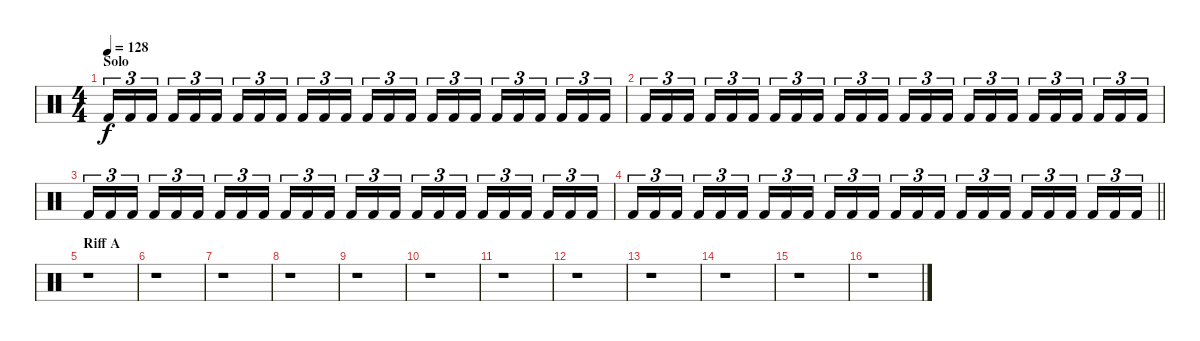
\track "" {instrument percussion}
\staff {score}
\articulation defaults
\ts (4 4)
\section ("" "Solo")
\tempo 128
\clef neutral
\ks c "Kick (hit) 2".16{tu (3 2) dy f} "Kick (hit) 2".16{tu (3 2)} "Kick (hit) 2".16{tu (3 2) beam splitsecondary} "Kick (hit) 2".16{tu (3 2)} "Kick (hit) 2".16{tu (3 2)} "Kick (hit) 2".16{tu (3 2)} "Kick (hit) 2".16{tu (3 2)} "Kick (hit) 2".16{tu (3 2)} "Kick (hit) 2".16{tu (3 2) beam splitsecondary} "Kick (hit) 2".16{tu (3 2)} "Kick (hit) 2".16{tu (3 2)} "Kick (hit) 2".16{tu (3 2)} "Kick (hit) 2".16{tu (3 2)} "Kick (hit) 2".16{tu (3 2)} "Kick (hit) 2".16{tu (3 2) beam splitsecondary} "Kick (hit) 2".16{tu (3 2)} "Kick (hit) 2".16{tu (3 2)} "Kick (hit) 2".16{tu (3 2)} "Kick (hit) 2".16{tu (3 2)} "Kick (hit) 2".16{tu (3 2)} "Kick (hit) 2".16{tu (3 2) beam splitsecondary} "Kick (hit) 2".16{tu (3 2)} "Kick (hit) 2".16{tu (3 2)} "Kick (hit) 2".16{tu (3 2)}
|
"Kick (hit) 2".16{tu (3 2)} "Kick (hit) 2".16{tu (3 2)} "Kick (hit) 2".16{tu (3 2) beam splitsecondary} "Kick (hit) 2".16{tu (3 2)} "Kick (hit) 2".16{tu (3 2)} "Kick (hit) 2".16{tu (3 2)} "Kick (hit) 2".16{tu (3 2)} "Kick (hit) 2".16{tu (3 2)} "Kick (hit) 2".16{tu (3 2) beam splitsecondary} "Kick (hit) 2".16{tu (3 2)} "Kick (hit) 2".16{tu (3 2)} "Kick (hit) 2".16{tu (3 2)} "Kick (hit) 2".16{tu (3 2)} "Kick (hit) 2".16{tu (3 2)} "Kick (hit) 2".16{tu (3 2) beam splitsecondary} "Kick (hit) 2".16{tu (3 2)} "Kick (hit) 2".16{tu (3 2)} "Kick (hit) 2".16{tu (3 2)} "Kick (hit) 2".16{tu (3 2)} "Kick (hit) 2".16{tu (3 2)} "Kick (hit) 2".16{tu (3 2) beam splitsecondary} "Kick (hit) 2".16{tu (3 2)} "Kick (hit) 2".16{tu (3 2)} "Kick (hit) 2".16{tu (3 2)} |
"Kick (hit) 2".16{tu (3 2)} "Kick (hit) 2".16{tu (3 2)} "Kick (hit) 2".16{tu (3 2) beam splitsecondary} "Kick (hit) 2".16{tu (3 2)} "Kick (hit) 2".16{tu (3 2)} "Kick (hit) 2".16{tu (3 2)} "Kick (hit) 2".16{tu (3 2)} "Kick (hit) 2".16{tu (3 2)} "Kick (hit) 2".16{tu (3 2) beam splitsecondary} "Kick (hit) 2".16{tu (3 2)} "Kick (hit) 2".16{tu (3 2)} "Kick (hit) 2".16{tu (3 2)} "Kick (hit) 2".16{tu (3 2)} "Kick (hit) 2".16{tu (3 2)} "Kick (hit) 2".16{tu (3 2) beam splitsecondary} "Kick (hit) 2".16{tu (3 2)} "Kick (hit) 2".16{tu (3 2)} "Kick (hit) 2".16{tu (3 2)} "Kick (hit) 2".16{tu (3 2)} "Kick (hit) 2".16{tu (3 2)} "Kick (hit) 2".16{tu (3 2) beam splitsecondary} "Kick (hit) 2".16{tu (3 2)} "Kick (hit) 2".16{tu (3 2)} "Kick (hit) 2".16{tu (3 2)} |
\barLineRight lightlight "Kick (hit) 2".16{tu (3 2)} "Kick (hit) 2".16{tu (3 2)} "Kick (hit) 2".16{tu (3 2) beam splitsecondary} "Kick (hit) 2".16{tu (3 2)} "Kick (hit) 2".16{tu (3 2)} "Kick (hit) 2".16{tu (3 2)} "Kick (hit) 2".16{tu (3 2)} "Kick (hit) 2".16{tu (3 2)} "Kick (hit) 2".16{tu (3 2) beam splitsecondary} "Kick (hit) 2".16{tu (3 2)} "Kick (hit) 2".16{tu (3 2)} "Kick (hit) 2".16{tu (3 2)} "Kick (hit) 2".16{tu (3 2)} "Kick (hit) 2".16{tu (3 2)} "Kick (hit) 2".16{tu (3 2) beam splitsecondary} "Kick (hit) 2".16{tu (3 2)} "Kick (hit) 2".16{tu (3 2)} "Kick (hit) 2".16{tu (3 2)} "Kick (hit) 2".16{tu (3 2)} "Kick (hit) 2".16{tu (3 2)} "Kick (hit) 2".16{tu (3 2) beam splitsecondary} "Kick (hit) 2".16{tu (3 2)} "Kick (hit) 2".16{tu (3 2)} "Kick (hit) 2".16{tu (3 2)}
|
\section ("" "Riff A")
r.1 |
r.1 |
r.1 |
r.1 |
r.1 |
r.1 |
r.1 |
r.1 |
r.1 |
r.1 |
r.1 |
r.1
